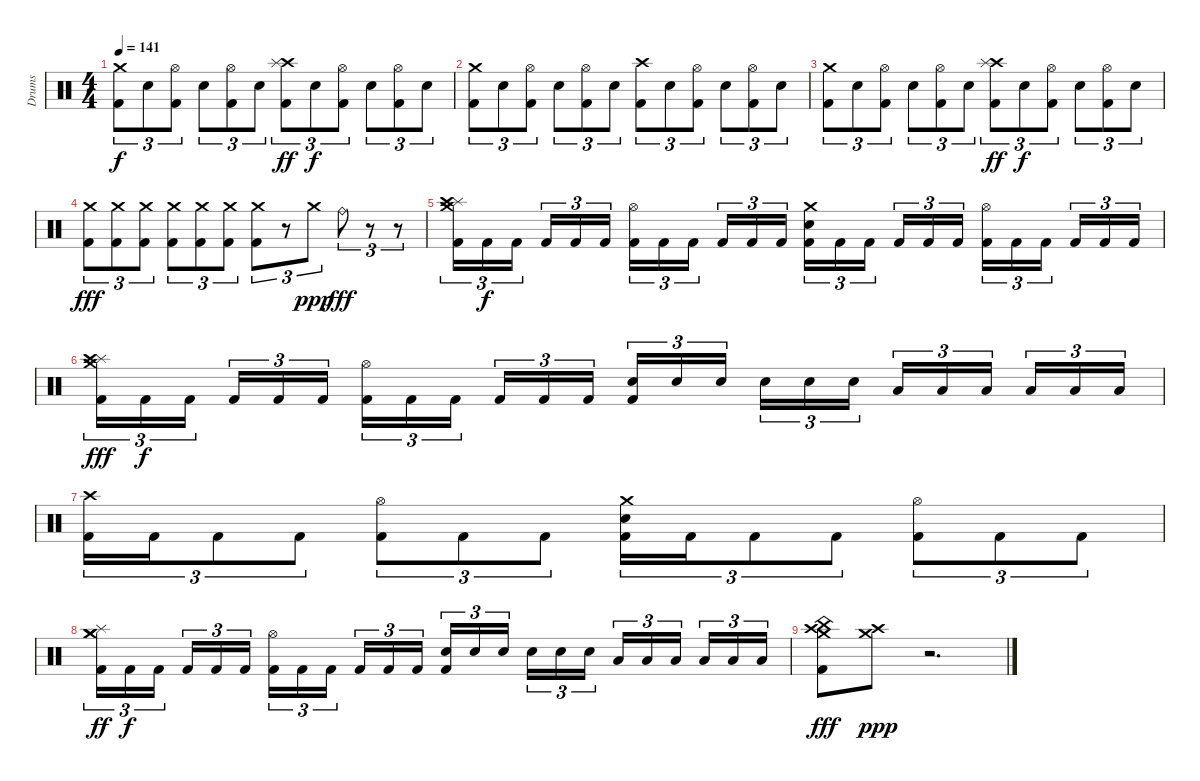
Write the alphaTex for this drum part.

\track ("Drums" "Drums") {instrument percussion}
\staff {score}
\articulation defaults
\ts (4 4)
\tempo 141
\clef neutral
\ks c
("Crash medium (hit)" "Kick (hit) 2").8{tu (3 2) dy f} "Electric Snare (hit)".8{tu (3 2)} ("Hi-Hat (open)" "Kick (hit) 2").8{tu (3 2)} "Electric Snare (hit)".8{tu (3 2)} ("Hi-Hat (open)" "Kick (hit) 2").8{tu (3 2)} "Electric Snare (hit)".8{tu (3 2)} ("Crash high (hit)" "Splash (hit)" "Kick (hit) 2").8{tu (3 2) dy ff} "Electric Snare (hit)".8{tu (3 2) dy f} ("Hi-Hat (open)" "Kick (hit) 2").8{tu (3 2)} "Electric Snare (hit)".8{tu (3 2)} ("Hi-Hat (open)" "Kick (hit) 2").8{tu (3 2)} "Electric Snare (hit)".8{tu (3 2)} |
("Crash medium (hit)" "Kick (hit) 2").8{tu (3 2)} "Electric Snare (hit)".8{tu (3 2)} ("Hi-Hat (open)" "Kick (hit) 2").8{tu (3 2)} "Electric Snare (hit)".8{tu (3 2)} ("Hi-Hat (open)" "Kick (hit) 2").8{tu (3 2)} "Electric Snare (hit)".8{tu (3 2)} ("Crash high (hit)" "Kick (hit) 2").8{tu (3 2)} "Electric Snare (hit)".8{tu (3 2)} ("Hi-Hat (open)" "Kick (hit) 2").8{tu (3 2)} "Electric Snare (hit)".8{tu (3 2)} ("Hi-Hat (open)" "Kick (hit) 2").8{tu (3 2)} "Electric Snare (hit)".8{tu (3 2)} |
("Crash medium (hit)" "Kick (hit) 2").8{tu (3 2)} "Electric Snare (hit)".8{tu (3 2)} ("Hi-Hat (open)" "Kick (hit) 2").8{tu (3 2)} "Electric Snare (hit)".8{tu (3 2)} ("Hi-Hat (open)" "Kick (hit) 2").8{tu (3 2)} "Electric Snare (hit)".8{tu (3 2)} ("Crash high (hit)" "Splash (hit)" "Kick (hit) 2").8{tu (3 2) dy ff} "Electric Snare (hit)".8{tu (3 2) dy f} ("Hi-Hat (open)" "Kick (hit) 2").8{tu (3 2)} "Electric Snare (hit)".8{tu (3 2)} ("Hi-Hat (open)" "Kick (hit) 2").8{tu (3 2)} "Electric Snare (hit)".8{tu (3 2)} |
("Crash medium (hit)" "Kick (hit) 2").8{tu (3 2) dy fff} ("Crash medium (hit)" "Kick (hit) 2").8{tu (3 2)} ("Crash medium (hit)" "Kick (hit) 2").8{tu (3 2)} ("Crash medium (hit)" "Kick (hit) 2").8{tu (3 2)} ("Crash medium (hit)" "Kick (hit) 2").8{tu (3 2)} ("Crash medium (hit)" "Kick (hit) 2").8{tu (3 2)} ("Crash medium (hit)" "Kick (hit) 2").8{tu (3 2)} r.8{tu (3 2)} "Crash medium (hit)".8{tu (3 2) dy ppp} "Ride (bell)".8{tu (3 2) dy fff} r.8{tu (3 2)} r.8{tu (3 2)} |
("Crash medium (hit)" "Splash (hit)" "Crash high (hit)" "Kick (hit) 2").16{tu (3 2)} "Kick (hit) 2".16{tu (3 2) dy f} "Kick (hit) 2".16{tu (3 2)} "Kick (hit) 2".16{tu (3 2)} "Kick (hit) 2".16{tu (3 2)} "Kick (hit) 2".16{tu (3 2)} ("Hi-Hat (open)" "Kick (hit) 2").16{tu (3 2)} "Kick (hit) 2".16{tu (3 2)} "Kick (hit) 2".16{tu (3 2)} "Kick (hit) 2".16{tu (3 2)} "Kick (hit) 2".16{tu (3 2)} "Kick (hit) 2".16{tu (3 2)} ("Crash medium (hit)" "Electric Snare (hit)" "Kick (hit) 2").16{tu (3 2)} "Kick (hit) 2".16{tu (3 2)} "Kick (hit) 2".16{tu (3 2)} "Kick (hit) 2".16{tu (3 2)} "Kick (hit) 2".16{tu (3 2)} "Kick (hit) 2".16{tu (3 2)} ("Hi-Hat (open)" "Kick (hit) 2").16{tu (3 2)} "Kick (hit) 2".16{tu (3 2)} "Kick (hit) 2".16{tu (3 2)} "Kick (hit) 2".16{tu (3 2)} "Kick (hit) 2".16{tu (3 2)} "Kick (hit) 2".16{tu (3 2)} |
("Crash medium (hit)" "Splash (hit)" "Crash high (hit)" "Kick (hit) 2").16{tu (3 2) dy fff} "Kick (hit) 2".16{tu (3 2) dy f} "Kick (hit) 2".16{tu (3 2)} "Kick (hit) 2".16{tu (3 2)} "Kick (hit) 2".16{tu (3 2)} "Kick (hit) 2".16{tu (3 2)} ("Hi-Hat (open)" "Kick (hit) 2").16{tu (3 2)} "Kick (hit) 2".16{tu (3 2)} "Kick (hit) 2".16{tu (3 2)} "Kick (hit) 2".16{tu (3 2)} "Kick (hit) 2".16{tu (3 2)} "Kick (hit) 2".16{tu (3 2)} ("Electric Snare (hit)" "Kick (hit) 2").16{tu (3 2)} "Electric Snare (hit)".16{tu (3 2)} "Electric Snare (hit)".16{tu (3 2)} "Electric Snare (hit)".16{tu (3 2)} "Electric Snare (hit)".16{tu (3 2)} "Electric Snare (hit)".16{tu (3 2)} "Low Tom (hit)".16{tu (3 2)} "Low Tom (hit)".16{tu (3 2)} "Low Tom (hit)".16{tu (3 2)} "Low Tom (hit)".16{tu (3 2)} "Low Tom (hit)".16{tu (3 2)} "Low Tom (hit)".16{tu (3 2)} |
("Crash high (hit)" "Kick (hit) 2").16{tu (3 2)} "Kick (hit) 2".16{tu (3 2)} "Kick (hit) 2".8{tu (3 2)} "Kick (hit) 2".8{tu (3 2)} ("Hi-Hat (open)" "Kick (hit) 2").8{tu (3 2)} "Kick (hit) 2".8{tu (3 2)} "Kick (hit) 2".8{tu (3 2)} ("Crash medium (hit)" "Electric Snare (hit)" "Kick (hit) 2").16{tu (3 2)} "Kick (hit) 2".16{tu (3 2)} "Kick (hit) 2".8{tu (3 2)} "Kick (hit) 2".8{tu (3 2)} ("Hi-Hat (open)" "Kick (hit) 2").8{tu (3 2)} "Kick (hit) 2".8{tu (3 2)} "Kick (hit) 2".8{tu (3 2)} |
("Crash medium (hit)" "Splash (hit)" "Crash medium (hit)" "Kick (hit) 2").16{tu (3 2) dy ff} "Kick (hit) 2".16{tu (3 2) dy f} "Kick (hit) 2".16{tu (3 2)} "Kick (hit) 2".16{tu (3 2)} "Kick (hit) 2".16{tu (3 2)} "Kick (hit) 2".16{tu (3 2)} ("Hi-Hat (open)" "Kick (hit) 2").16{tu (3 2)} "Kick (hit) 2".16{tu (3 2)} "Kick (hit) 2".16{tu (3 2)} "Kick (hit) 2".16{tu (3 2)} "Kick (hit) 2".16{tu (3 2)} "Kick (hit) 2".16{tu (3 2)} ("Electric Snare (hit)" "Kick (hit) 2").16{tu (3 2)} "Electric Snare (hit)".16{tu (3 2)} "Electric Snare (hit)".16{tu (3 2)} "Electric Snare (hit)".16{tu (3 2)} "Electric Snare (hit)".16{tu (3 2)} "Electric Snare (hit)".16{tu (3 2)} "Low Tom (hit)".16{tu (3 2)} "Low Tom (hit)".16{tu (3 2)} "Low Tom (hit)".16{tu (3 2)} "Low Tom (hit)".16{tu (3 2)} "Low Tom (hit)".16{tu (3 2)} "Low Tom (hit)".16{tu (3 2)} |
("China (hit)" "Crash medium (hit)" "Crash high (hit)" "Kick (hit) 2").8{dy fff} ("Crash medium (hit)" "Crash high (hit)").8{dy ppp} r.2{d}
